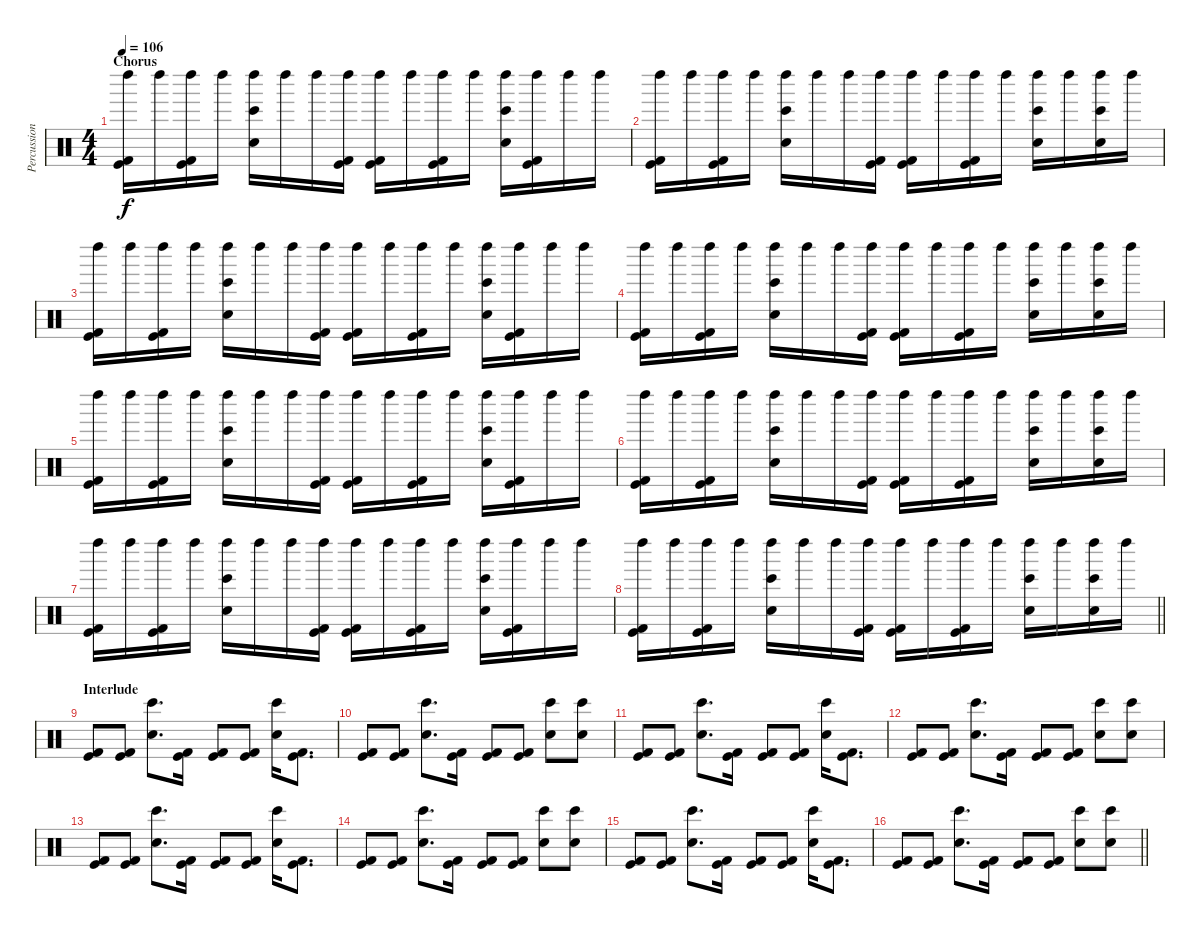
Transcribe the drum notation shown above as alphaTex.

\track ("Percussion" "Percussion") {instrument percussion}
\staff {score}
\articulation defaults
\ts (4 4)
\section ("" "Chorus")
\tempo 106
\clef neutral
\ks c
("Left Maraca (hit)" "Kick (hit)" "Kick (hit) 2").16{dy f} "Left Maraca (hit)".16 ("Left Maraca (hit)" "Kick (hit)" "Kick (hit) 2").16 "Left Maraca (hit)".16 ("Left Maraca (hit)" "Bongo High (hit)" "Hand Clap (hit)").16 "Left Maraca (hit)".16 "Left Maraca (hit)".16 ("Left Maraca (hit)" "Kick (hit)" "Kick (hit) 2").16 ("Left Maraca (hit)" "Kick (hit)" "Kick (hit) 2").16 "Left Maraca (hit)".16 ("Left Maraca (hit)" "Kick (hit)" "Kick (hit) 2").16 "Left Maraca (hit)".16 ("Left Maraca (hit)" "Bongo High (hit)" "Hand Clap (hit)").16 ("Left Maraca (hit)" "Kick (hit)" "Kick (hit) 2").16 "Left Maraca (hit)".16 "Left Maraca (hit)".16 |
("Left Maraca (hit)" "Kick (hit)" "Kick (hit) 2").16 "Left Maraca (hit)".16 ("Left Maraca (hit)" "Kick (hit)" "Kick (hit) 2").16 "Left Maraca (hit)".16 ("Left Maraca (hit)" "Bongo High (hit)" "Hand Clap (hit)").16 "Left Maraca (hit)".16 "Left Maraca (hit)".16 ("Left Maraca (hit)" "Kick (hit)" "Kick (hit) 2").16 ("Left Maraca (hit)" "Kick (hit)" "Kick (hit) 2").16 "Left Maraca (hit)".16 ("Left Maraca (hit)" "Kick (hit)" "Kick (hit) 2").16 "Left Maraca (hit)".16 ("Left Maraca (hit)" "Bongo High (hit)" "Hand Clap (hit)").16 "Left Maraca (hit)".16 ("Left Maraca (hit)" "Bongo High (hit)" "Hand Clap (hit)").16 "Left Maraca (hit)".16 |
("Left Maraca (hit)" "Kick (hit)" "Kick (hit) 2").16 "Left Maraca (hit)".16 ("Left Maraca (hit)" "Kick (hit)" "Kick (hit) 2").16 "Left Maraca (hit)".16 ("Left Maraca (hit)" "Bongo High (hit)" "Hand Clap (hit)").16 "Left Maraca (hit)".16 "Left Maraca (hit)".16 ("Left Maraca (hit)" "Kick (hit)" "Kick (hit) 2").16 ("Left Maraca (hit)" "Kick (hit)" "Kick (hit) 2").16 "Left Maraca (hit)".16 ("Left Maraca (hit)" "Kick (hit)" "Kick (hit) 2").16 "Left Maraca (hit)".16 ("Left Maraca (hit)" "Bongo High (hit)" "Hand Clap (hit)").16 ("Left Maraca (hit)" "Kick (hit)" "Kick (hit) 2").16 "Left Maraca (hit)".16 "Left Maraca (hit)".16 |
("Left Maraca (hit)" "Kick (hit)" "Kick (hit) 2").16 "Left Maraca (hit)".16 ("Left Maraca (hit)" "Kick (hit)" "Kick (hit) 2").16 "Left Maraca (hit)".16 ("Left Maraca (hit)" "Bongo High (hit)" "Hand Clap (hit)").16 "Left Maraca (hit)".16 "Left Maraca (hit)".16 ("Left Maraca (hit)" "Kick (hit)" "Kick (hit) 2").16 ("Left Maraca (hit)" "Kick (hit)" "Kick (hit) 2").16 "Left Maraca (hit)".16 ("Left Maraca (hit)" "Kick (hit)" "Kick (hit) 2").16 "Left Maraca (hit)".16 ("Left Maraca (hit)" "Bongo High (hit)" "Hand Clap (hit)").16 "Left Maraca (hit)".16 ("Left Maraca (hit)" "Bongo High (hit)" "Hand Clap (hit)").16 "Left Maraca (hit)".16 |
("Left Maraca (hit)" "Kick (hit)" "Kick (hit) 2").16 "Left Maraca (hit)".16 ("Left Maraca (hit)" "Kick (hit)" "Kick (hit) 2").16 "Left Maraca (hit)".16 ("Left Maraca (hit)" "Bongo High (hit)" "Hand Clap (hit)").16 "Left Maraca (hit)".16 "Left Maraca (hit)".16 ("Left Maraca (hit)" "Kick (hit)" "Kick (hit) 2").16 ("Left Maraca (hit)" "Kick (hit)" "Kick (hit) 2").16 "Left Maraca (hit)".16 ("Left Maraca (hit)" "Kick (hit)" "Kick (hit) 2").16 "Left Maraca (hit)".16 ("Left Maraca (hit)" "Bongo High (hit)" "Hand Clap (hit)").16 ("Left Maraca (hit)" "Kick (hit)" "Kick (hit) 2").16 "Left Maraca (hit)".16 "Left Maraca (hit)".16 |
("Left Maraca (hit)" "Kick (hit)" "Kick (hit) 2").16 "Left Maraca (hit)".16 ("Left Maraca (hit)" "Kick (hit)" "Kick (hit) 2").16 "Left Maraca (hit)".16 ("Left Maraca (hit)" "Bongo High (hit)" "Hand Clap (hit)").16 "Left Maraca (hit)".16 "Left Maraca (hit)".16 ("Left Maraca (hit)" "Kick (hit)" "Kick (hit) 2").16 ("Left Maraca (hit)" "Kick (hit)" "Kick (hit) 2").16 "Left Maraca (hit)".16 ("Left Maraca (hit)" "Kick (hit)" "Kick (hit) 2").16 "Left Maraca (hit)".16 ("Left Maraca (hit)" "Bongo High (hit)" "Hand Clap (hit)").16 "Left Maraca (hit)".16 ("Left Maraca (hit)" "Bongo High (hit)" "Hand Clap (hit)").16 "Left Maraca (hit)".16 |
("Left Maraca (hit)" "Kick (hit)" "Kick (hit) 2").16 "Left Maraca (hit)".16 ("Left Maraca (hit)" "Kick (hit)" "Kick (hit) 2").16 "Left Maraca (hit)".16 ("Left Maraca (hit)" "Bongo High (hit)" "Hand Clap (hit)").16 "Left Maraca (hit)".16 "Left Maraca (hit)".16 ("Left Maraca (hit)" "Kick (hit)" "Kick (hit) 2").16 ("Left Maraca (hit)" "Kick (hit)" "Kick (hit) 2").16 "Left Maraca (hit)".16 ("Left Maraca (hit)" "Kick (hit)" "Kick (hit) 2").16 "Left Maraca (hit)".16 ("Left Maraca (hit)" "Bongo High (hit)" "Hand Clap (hit)").16 ("Left Maraca (hit)" "Kick (hit)" "Kick (hit) 2").16 "Left Maraca (hit)".16 "Left Maraca (hit)".16 |
\barLineRight lightlight
("Left Maraca (hit)" "Kick (hit)" "Kick (hit) 2").16 "Left Maraca (hit)".16 ("Left Maraca (hit)" "Kick (hit)" "Kick (hit) 2").16 "Left Maraca (hit)".16 ("Left Maraca (hit)" "Bongo High (hit)" "Hand Clap (hit)").16 "Left Maraca (hit)".16 "Left Maraca (hit)".16 ("Left Maraca (hit)" "Kick (hit)" "Kick (hit) 2").16 ("Left Maraca (hit)" "Kick (hit)" "Kick (hit) 2").16 "Left Maraca (hit)".16 ("Left Maraca (hit)" "Kick (hit)" "Kick (hit) 2").16 "Left Maraca (hit)".16 ("Left Maraca (hit)" "Bongo High (hit)" "Hand Clap (hit)").16 "Left Maraca (hit)".16 ("Left Maraca (hit)" "Bongo High (hit)" "Hand Clap (hit)").16 "Left Maraca (hit)".16 |
\section ("" "Interlude")
("Kick (hit)" "Kick (hit) 2").8 ("Kick (hit)" "Kick (hit) 2").8 ("Bongo High (hit)" "Hand Clap (hit)").8{d} ("Kick (hit)" "Kick (hit) 2").16 ("Kick (hit)" "Kick (hit) 2").8 ("Kick (hit)" "Kick (hit) 2").8 ("Bongo High (hit)" "Hand Clap (hit)").16 ("Kick (hit)" "Kick (hit) 2").8{d} |
("Kick (hit)" "Kick (hit) 2").8 ("Kick (hit)" "Kick (hit) 2").8 ("Bongo High (hit)" "Hand Clap (hit)").8{d} ("Kick (hit)" "Kick (hit) 2").16 ("Kick (hit)" "Kick (hit) 2").8 ("Kick (hit)" "Kick (hit) 2").8 ("Bongo High (hit)" "Hand Clap (hit)").8 ("Bongo High (hit)" "Hand Clap (hit)").8 |
("Kick (hit)" "Kick (hit) 2").8 ("Kick (hit)" "Kick (hit) 2").8 ("Bongo High (hit)" "Hand Clap (hit)").8{d} ("Kick (hit)" "Kick (hit) 2").16 ("Kick (hit)" "Kick (hit) 2").8 ("Kick (hit)" "Kick (hit) 2").8 ("Bongo High (hit)" "Hand Clap (hit)").16 ("Kick (hit)" "Kick (hit) 2").8{d} |
("Kick (hit)" "Kick (hit) 2").8 ("Kick (hit)" "Kick (hit) 2").8 ("Bongo High (hit)" "Hand Clap (hit)").8{d} ("Kick (hit)" "Kick (hit) 2").16 ("Kick (hit)" "Kick (hit) 2").8 ("Kick (hit)" "Kick (hit) 2").8 ("Bongo High (hit)" "Hand Clap (hit)").8 ("Bongo High (hit)" "Hand Clap (hit)").8 |
("Kick (hit)" "Kick (hit) 2").8 ("Kick (hit)" "Kick (hit) 2").8 ("Bongo High (hit)" "Hand Clap (hit)").8{d} ("Kick (hit)" "Kick (hit) 2").16 ("Kick (hit)" "Kick (hit) 2").8 ("Kick (hit)" "Kick (hit) 2").8 ("Bongo High (hit)" "Hand Clap (hit)").16 ("Kick (hit)" "Kick (hit) 2").8{d} |
("Kick (hit)" "Kick (hit) 2").8 ("Kick (hit)" "Kick (hit) 2").8 ("Bongo High (hit)" "Hand Clap (hit)").8{d} ("Kick (hit)" "Kick (hit) 2").16 ("Kick (hit)" "Kick (hit) 2").8 ("Kick (hit)" "Kick (hit) 2").8 ("Bongo High (hit)" "Hand Clap (hit)").8 ("Bongo High (hit)" "Hand Clap (hit)").8 |
("Kick (hit)" "Kick (hit) 2").8 ("Kick (hit)" "Kick (hit) 2").8 ("Bongo High (hit)" "Hand Clap (hit)").8{d} ("Kick (hit)" "Kick (hit) 2").16 ("Kick (hit)" "Kick (hit) 2").8 ("Kick (hit)" "Kick (hit) 2").8 ("Bongo High (hit)" "Hand Clap (hit)").16 ("Kick (hit)" "Kick (hit) 2").8{d} |
\barLineRight lightlight
("Kick (hit)" "Kick (hit) 2").8 ("Kick (hit)" "Kick (hit) 2").8 ("Bongo High (hit)" "Hand Clap (hit)").8{d} ("Kick (hit)" "Kick (hit) 2").16 ("Kick (hit)" "Kick (hit) 2").8 ("Kick (hit)" "Kick (hit) 2").8 ("Bongo High (hit)" "Hand Clap (hit)").8 ("Bongo High (hit)" "Hand Clap (hit)").8
